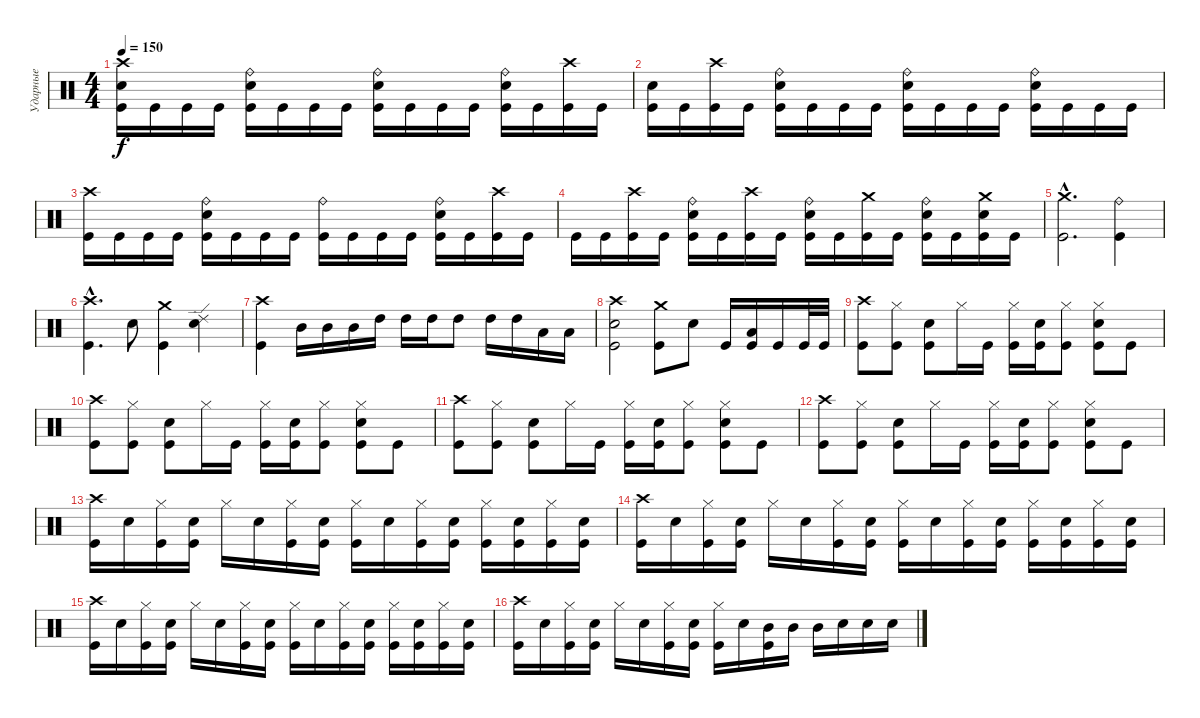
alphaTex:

\track ("Ударные" "Ударные") {instrument percussion}
\staff {score}
\articulation defaults
\ts (4 4)
\tempo 150
\clef neutral
\ks c
("Crash high (hit)" "Electric Snare (hit)" "Kick (hit)").16{dy f} "Kick (hit)".16 "Kick (hit)".16 "Kick (hit)".16 ("Ride (bell)" "Electric Snare (hit)" "Kick (hit)").16 "Kick (hit)".16 "Kick (hit)".16 "Kick (hit)".16 ("Ride (bell)" "Electric Snare (hit)" "Kick (hit)").16 "Kick (hit)".16 "Kick (hit)".16 "Kick (hit)".16 ("Ride (bell)" "Electric Snare (hit)" "Kick (hit)").16 "Kick (hit)".16 ("Crash high (hit)" "Kick (hit)").16 "Kick (hit)".16 |
("Electric Snare (hit)" "Kick (hit)").16 "Kick (hit)".16 ("Crash high (hit)" "Kick (hit)").16 "Kick (hit)".16 ("Ride (bell)" "Electric Snare (hit)" "Kick (hit)").16 "Kick (hit)".16 "Kick (hit)".16 "Kick (hit)".16 ("Ride (bell)" "Electric Snare (hit)" "Kick (hit)").16 "Kick (hit)".16 "Kick (hit)".16 "Kick (hit)".16 ("Ride (bell)" "Electric Snare (hit)" "Kick (hit)").16 "Kick (hit)".16 "Kick (hit)".16 "Kick (hit)".16 |
("Crash high (hit)" "Kick (hit)").16 "Kick (hit)".16 "Kick (hit)".16 "Kick (hit)".16 ("Ride (bell)" "Electric Snare (hit)" "Kick (hit)").16 "Kick (hit)".16 "Kick (hit)".16 "Kick (hit)".16 ("Ride (bell)" "Kick (hit)").16 "Kick (hit)".16 "Kick (hit)".16 "Kick (hit)".16 ("Ride (bell)" "Electric Snare (hit)" "Kick (hit)").16 "Kick (hit)".16 ("Crash high (hit)" "Kick (hit)").16 "Kick (hit)".16 |
"Kick (hit)".16 "Kick (hit)".16 ("Crash high (hit)" "Kick (hit)").16 "Kick (hit)".16 ("Ride (bell)" "Electric Snare (hit)" "Kick (hit)").16 "Kick (hit)".16 ("Crash high (hit)" "Kick (hit)").16 "Kick (hit)".16 ("Ride (bell)" "Electric Snare (hit)" "Kick (hit)").16 "Kick (hit)".16 ("Crash medium (hit)" "Kick (hit)").16 "Kick (hit)".16 ("Ride (bell)" "Electric Snare (hit)" "Kick (hit)").16 "Kick (hit)".16 ("Crash medium (hit)" "Electric Snare (hit)" "Kick (hit)").16 "Kick (hit)".16 |
("Crash medium (hit)"{hac} "Kick (hit)"{hac}).2{d} ("Ride (bell)" "Kick (hit)").4 |
("Crash high (hit)"{hac} "Kick (hit)"{hac}).4{d} "Electric Snare (hit)".8 ("Crash medium (hit)" "Kick (hit)").4 ("Ride (edge) 2" "Electric Snare (hit)").4 |
("Crash high (hit)" "Kick (hit)").4 "Mid Tom (hit)".16 "Mid Tom (hit)".16 "Mid Tom (hit)".16 "High Tom (hit)".16 "High Tom (hit)".16 "High Tom (hit)".16 "High Tom (hit)".8 "High Tom (hit)".16 "High Tom (hit)".16 "Low Tom (hit)".16 "Low Tom (hit)".16 |
("Crash high (hit)" "Electric Snare (hit)" "Kick (hit)").2 ("Crash medium (hit)" "Kick (hit)").8 "Electric Snare (hit)".8 "Kick (hit)".16 ("Low Tom (hit)" "Kick (hit)").16 "Kick (hit)".16 "Kick (hit)".32 "Kick (hit)".32 |
("Crash high (hit)" "Kick (hit)").8 ("Hi-Hat (closed)" "Kick (hit)").8 ("Electric Snare (hit)" "Kick (hit)").8 "Hi-Hat (closed)".16 "Kick (hit)".16 ("Hi-Hat (closed)" "Kick (hit)").16 ("Electric Snare (hit)" "Kick (hit)").16 ("Hi-Hat (closed)" "Kick (hit)").8 ("Hi-Hat (closed)" "Electric Snare (hit)" "Kick (hit)").8 "Kick (hit)".8 |
("Crash high (hit)" "Kick (hit)").8 ("Hi-Hat (closed)" "Kick (hit)").8 ("Electric Snare (hit)" "Kick (hit)").8 "Hi-Hat (closed)".16 "Kick (hit)".16 ("Hi-Hat (closed)" "Kick (hit)").16 ("Electric Snare (hit)" "Kick (hit)").16 ("Hi-Hat (closed)" "Kick (hit)").8 ("Hi-Hat (closed)" "Electric Snare (hit)" "Kick (hit)").8 "Kick (hit)".8 |
("Crash high (hit)" "Kick (hit)").8 ("Hi-Hat (closed)" "Kick (hit)").8 ("Electric Snare (hit)" "Kick (hit)").8 "Hi-Hat (closed)".16 "Kick (hit)".16 ("Hi-Hat (closed)" "Kick (hit)").16 ("Electric Snare (hit)" "Kick (hit)").16 ("Hi-Hat (closed)" "Kick (hit)").8 ("Hi-Hat (closed)" "Electric Snare (hit)" "Kick (hit)").8 "Kick (hit)".8 |
("Crash high (hit)" "Kick (hit)").8 ("Hi-Hat (closed)" "Kick (hit)").8 ("Electric Snare (hit)" "Kick (hit)").8 "Hi-Hat (closed)".16 "Kick (hit)".16 ("Hi-Hat (closed)" "Kick (hit)").16 ("Electric Snare (hit)" "Kick (hit)").16 ("Hi-Hat (closed)" "Kick (hit)").8 ("Hi-Hat (closed)" "Electric Snare (hit)" "Kick (hit)").8 "Kick (hit)".8 |
("Crash high (hit)" "Kick (hit)").16 "Electric Snare (hit)".16 ("Hi-Hat (closed)" "Kick (hit)").16 ("Electric Snare (hit)" "Kick (hit)").16 "Hi-Hat (closed)".16 "Electric Snare (hit)".16 ("Hi-Hat (closed)" "Kick (hit)").16 ("Electric Snare (hit)" "Kick (hit)").16 ("Hi-Hat (closed)" "Kick (hit)").16 "Electric Snare (hit)".16 ("Hi-Hat (closed)" "Kick (hit)").16 ("Electric Snare (hit)" "Kick (hit)").16 ("Hi-Hat (closed)" "Kick (hit)").16 ("Electric Snare (hit)" "Kick (hit)").16 ("Hi-Hat (closed)" "Kick (hit)").16 ("Electric Snare (hit)" "Kick (hit)").16 |
("Crash high (hit)" "Kick (hit)").16 "Electric Snare (hit)".16 ("Hi-Hat (closed)" "Kick (hit)").16 ("Electric Snare (hit)" "Kick (hit)").16 "Hi-Hat (closed)".16 "Electric Snare (hit)".16 ("Hi-Hat (closed)" "Kick (hit)").16 ("Electric Snare (hit)" "Kick (hit)").16 ("Hi-Hat (closed)" "Kick (hit)").16 "Electric Snare (hit)".16 ("Hi-Hat (closed)" "Kick (hit)").16 ("Electric Snare (hit)" "Kick (hit)").16 ("Hi-Hat (closed)" "Kick (hit)").16 ("Electric Snare (hit)" "Kick (hit)").16 ("Hi-Hat (closed)" "Kick (hit)").16 ("Electric Snare (hit)" "Kick (hit)").16 |
("Crash high (hit)" "Kick (hit)").16 "Electric Snare (hit)".16 ("Hi-Hat (closed)" "Kick (hit)").16 ("Electric Snare (hit)" "Kick (hit)").16 "Hi-Hat (closed)".16 "Electric Snare (hit)".16 ("Hi-Hat (closed)" "Kick (hit)").16 ("Electric Snare (hit)" "Kick (hit)").16 ("Hi-Hat (closed)" "Kick (hit)").16 "Electric Snare (hit)".16 ("Hi-Hat (closed)" "Kick (hit)").16 ("Electric Snare (hit)" "Kick (hit)").16 ("Hi-Hat (closed)" "Kick (hit)").16 ("Electric Snare (hit)" "Kick (hit)").16 ("Hi-Hat (closed)" "Kick (hit)").16 ("Electric Snare (hit)" "Kick (hit)").16 |
("Crash high (hit)" "Kick (hit)").16 "Electric Snare (hit)".16 ("Hi-Hat (closed)" "Kick (hit)").16 ("Electric Snare (hit)" "Kick (hit)").16 "Hi-Hat (closed)".16 "Electric Snare (hit)".16 ("Hi-Hat (closed)" "Kick (hit)").16 ("Electric Snare (hit)" "Kick (hit)").16 ("Hi-Hat (closed)" "Kick (hit)").16 "Electric Snare (hit)".16 ("Mid Tom (hit)" "Kick (hit)").16 "Mid Tom (hit)".16 "Mid Tom (hit)".16 "Electric Snare (hit)".16 "Electric Snare (hit)".16 "Electric Snare (hit)".16
